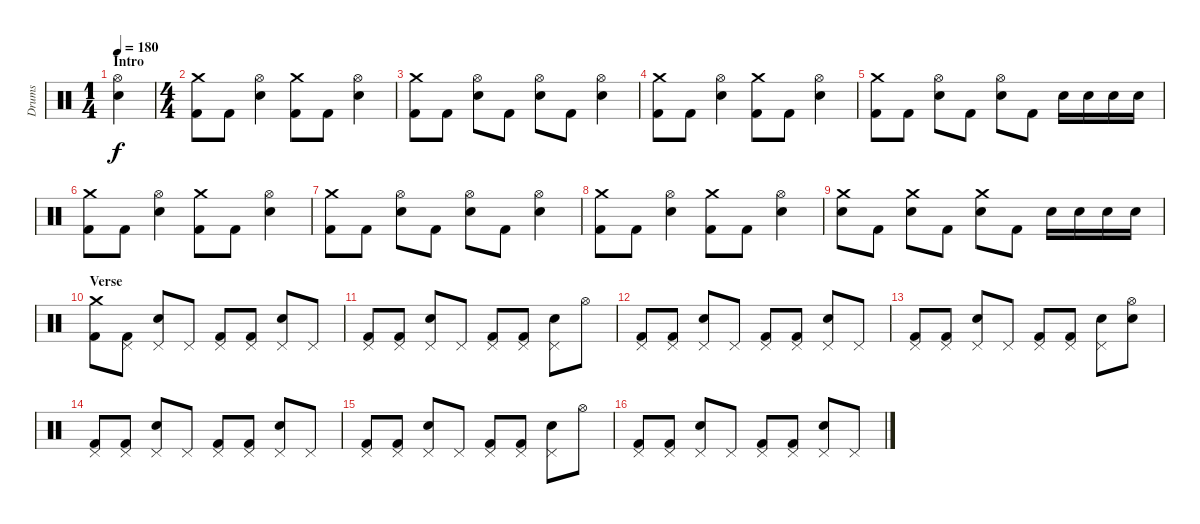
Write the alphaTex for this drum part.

\track ("Drums" "Drums") {instrument percussion}
\staff {score}
\articulation defaults
\ts (1 4)
\section ("" "Intro")
\tempo 180
\clef neutral
\ks c
("Electric Snare (hit)" "Hi-Hat (open)").4{dy f} |
\ts (4 4)
("Kick (hit) 2" "Crash medium (hit)").8 "Kick (hit) 2".8 ("Electric Snare (hit)" "Hi-Hat (open)").4 ("Kick (hit) 2" "Crash medium (hit)").8 "Kick (hit) 2".8 ("Electric Snare (hit)" "Hi-Hat (open)").4 |
("Kick (hit) 2" "Crash medium (hit)").8 "Kick (hit) 2".8 ("Electric Snare (hit)" "Hi-Hat (open)").8 "Kick (hit) 2".8 ("Electric Snare (hit)" "Hi-Hat (open)").8 "Kick (hit) 2".8 ("Electric Snare (hit)" "Hi-Hat (open)").4 |
("Kick (hit) 2" "Crash medium (hit)").8 "Kick (hit) 2".8 ("Electric Snare (hit)" "Hi-Hat (open)").4 ("Kick (hit) 2" "Crash medium (hit)").8 "Kick (hit) 2".8 ("Electric Snare (hit)" "Hi-Hat (open)").4 |
("Kick (hit) 2" "Crash medium (hit)").8 "Kick (hit) 2".8 ("Electric Snare (hit)" "Hi-Hat (open)").8 "Kick (hit) 2".8 ("Electric Snare (hit)" "Hi-Hat (open)").8 "Kick (hit) 2".8 "Electric Snare (hit)".16 "Electric Snare (hit)".16 "Electric Snare (hit)".16 "Electric Snare (hit)".16 |
("Kick (hit) 2" "Crash medium (hit)").8 "Kick (hit) 2".8 ("Electric Snare (hit)" "Hi-Hat (open)").4 ("Kick (hit) 2" "Crash medium (hit)").8 "Kick (hit) 2".8 ("Electric Snare (hit)" "Hi-Hat (open)").4 |
("Kick (hit) 2" "Crash medium (hit)").8 "Kick (hit) 2".8 ("Electric Snare (hit)" "Hi-Hat (open)").8 "Kick (hit) 2".8 ("Electric Snare (hit)" "Hi-Hat (open)").8 "Kick (hit) 2".8 ("Electric Snare (hit)" "Hi-Hat (open)").4 |
("Kick (hit) 2" "Crash medium (hit)").8 "Kick (hit) 2".8 ("Electric Snare (hit)" "Hi-Hat (open)").4 ("Kick (hit) 2" "Crash medium (hit)").8 "Kick (hit) 2".8 ("Electric Snare (hit)" "Hi-Hat (open)").4 |
("Electric Snare (hit)" "Crash medium (hit)").8 "Kick (hit) 2".8 ("Electric Snare (hit)" "Crash medium (hit)").8 "Kick (hit) 2".8 ("Electric Snare (hit)" "Crash medium (hit)").8 "Kick (hit) 2".8 "Electric Snare (hit)".16 "Electric Snare (hit)".16 "Electric Snare (hit)".16 "Electric Snare (hit)".16 |
\section ("" "Verse")
("Crash medium (hit)" "Kick (hit) 2").8 ("Pedal Hi-Hat (hit)" "Kick (hit) 2").8 ("Pedal Hi-Hat (hit)" "Electric Snare (hit)").8 "Pedal Hi-Hat (hit)".8 ("Pedal Hi-Hat (hit)" "Kick (hit) 2").8 ("Pedal Hi-Hat (hit)" "Kick (hit) 2").8 ("Pedal Hi-Hat (hit)" "Electric Snare (hit)").8 "Pedal Hi-Hat (hit)".8 |
("Pedal Hi-Hat (hit)" "Kick (hit) 2").8 ("Pedal Hi-Hat (hit)" "Kick (hit) 2").8 ("Pedal Hi-Hat (hit)" "Electric Snare (hit)").8 "Pedal Hi-Hat (hit)".8 ("Pedal Hi-Hat (hit)" "Kick (hit) 2").8 ("Pedal Hi-Hat (hit)" "Kick (hit) 2").8 ("Pedal Hi-Hat (hit)" "Electric Snare (hit)").8 "Hi-Hat (open)".8 |
("Pedal Hi-Hat (hit)" "Kick (hit) 2").8 ("Pedal Hi-Hat (hit)" "Kick (hit) 2").8 ("Pedal Hi-Hat (hit)" "Electric Snare (hit)").8 "Pedal Hi-Hat (hit)".8 ("Pedal Hi-Hat (hit)" "Kick (hit) 2").8 ("Pedal Hi-Hat (hit)" "Kick (hit) 2").8 ("Pedal Hi-Hat (hit)" "Electric Snare (hit)").8 "Pedal Hi-Hat (hit)".8 |
("Pedal Hi-Hat (hit)" "Kick (hit) 2").8 ("Pedal Hi-Hat (hit)" "Kick (hit) 2").8 ("Pedal Hi-Hat (hit)" "Electric Snare (hit)").8 "Pedal Hi-Hat (hit)".8 ("Pedal Hi-Hat (hit)" "Kick (hit) 2").8 ("Pedal Hi-Hat (hit)" "Kick (hit) 2").8 ("Pedal Hi-Hat (hit)" "Electric Snare (hit)").8 ("Hi-Hat (open)" "Electric Snare (hit)").8 |
("Pedal Hi-Hat (hit)" "Kick (hit) 2").8 ("Pedal Hi-Hat (hit)" "Kick (hit) 2").8 ("Pedal Hi-Hat (hit)" "Electric Snare (hit)").8 "Pedal Hi-Hat (hit)".8 ("Pedal Hi-Hat (hit)" "Kick (hit) 2").8 ("Pedal Hi-Hat (hit)" "Kick (hit) 2").8 ("Pedal Hi-Hat (hit)" "Electric Snare (hit)").8 "Pedal Hi-Hat (hit)".8 |
("Pedal Hi-Hat (hit)" "Kick (hit) 2").8 ("Pedal Hi-Hat (hit)" "Kick (hit) 2").8 ("Pedal Hi-Hat (hit)" "Electric Snare (hit)").8 "Pedal Hi-Hat (hit)".8 ("Pedal Hi-Hat (hit)" "Kick (hit) 2").8 ("Pedal Hi-Hat (hit)" "Kick (hit) 2").8 ("Pedal Hi-Hat (hit)" "Electric Snare (hit)").8 "Hi-Hat (open)".8 |
("Pedal Hi-Hat (hit)" "Kick (hit) 2").8 ("Pedal Hi-Hat (hit)" "Kick (hit) 2").8 ("Pedal Hi-Hat (hit)" "Electric Snare (hit)").8 "Pedal Hi-Hat (hit)".8 ("Pedal Hi-Hat (hit)" "Kick (hit) 2").8 ("Pedal Hi-Hat (hit)" "Kick (hit) 2").8 ("Pedal Hi-Hat (hit)" "Electric Snare (hit)").8 "Pedal Hi-Hat (hit)".8
